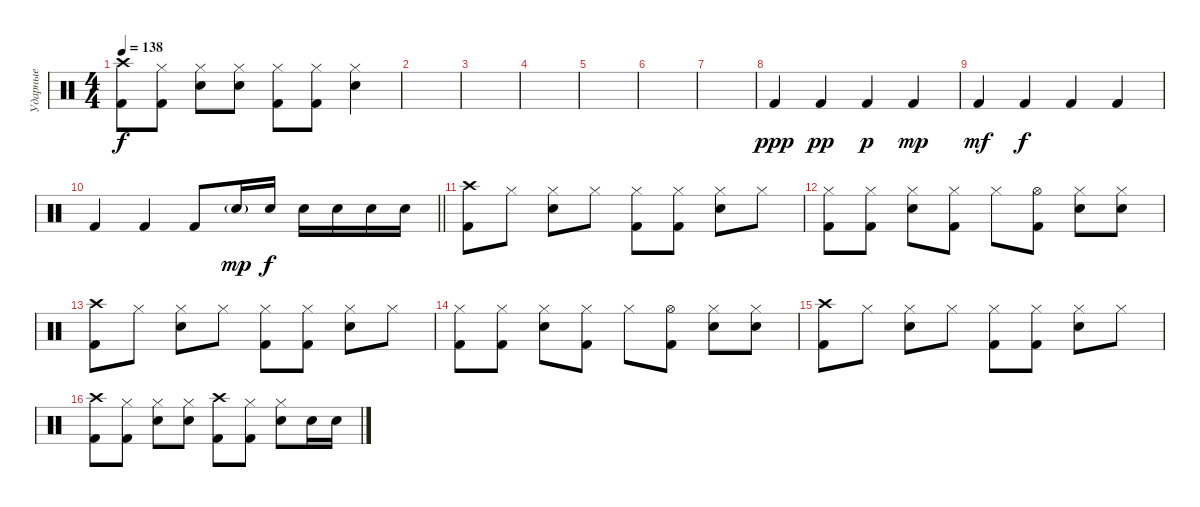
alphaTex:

\track ("Ударные" "Ударные") {instrument percussion}
\staff {score}
\articulation defaults
\ts (4 4)
\tempo 138
\clef neutral
\ks c
("Crash high (hit)" "Kick (hit) 2").8{dy f} ("Hi-Hat (closed)" "Kick (hit) 2").8 ("Hi-Hat (closed)" "Snare (hit) 2").8 ("Hi-Hat (closed)" "Snare (hit) 2").8 ("Hi-Hat (closed)" "Kick (hit) 2").8 ("Hi-Hat (closed)" "Kick (hit) 2").8 ("Hi-Hat (closed)" "Snare (hit) 2").4 |
|
|
|
|
|
|
"Kick (hit) 2".4{dy ppp} "Kick (hit) 2".4{dy pp} "Kick (hit) 2".4{dy p} "Kick (hit) 2".4{dy mp} |
"Kick (hit) 2".4{dy mf} "Kick (hit) 2".4{dy f} "Kick (hit) 2".4 "Kick (hit) 2".4 |
\barLineRight lightlight "Kick (hit) 2".4 "Kick (hit) 2".4 "Kick (hit) 2".8 "Snare (hit) 2"{g}.16{dy mp} "Snare (hit) 2".16{dy f} "Snare (hit) 2".16 "Snare (hit) 2".16 "Snare (hit) 2".16 "Snare (hit) 2".16
|
("Crash high (hit)" "Kick (hit) 2").8 "Hi-Hat (closed)".8 ("Hi-Hat (closed)" "Snare (hit) 2").8 "Hi-Hat (closed)".8 ("Hi-Hat (closed)" "Kick (hit) 2").8 ("Hi-Hat (closed)" "Kick (hit) 2").8 ("Hi-Hat (closed)" "Snare (hit) 2").8 "Hi-Hat (closed)".8 |
("Hi-Hat (closed)" "Kick (hit) 2").8 ("Hi-Hat (closed)" "Kick (hit) 2").8 ("Hi-Hat (closed)" "Snare (hit) 2").8 ("Hi-Hat (closed)" "Kick (hit) 2").8 "Hi-Hat (closed)".8 ("Hi-Hat (open)" "Kick (hit) 2").8 ("Hi-Hat (closed)" "Snare (hit) 2").8 ("Hi-Hat (closed)" "Snare (hit) 2").8 |
("Crash high (hit)" "Kick (hit) 2").8 "Hi-Hat (closed)".8 ("Hi-Hat (closed)" "Snare (hit) 2").8 "Hi-Hat (closed)".8 ("Hi-Hat (closed)" "Kick (hit) 2").8 ("Hi-Hat (closed)" "Kick (hit) 2").8 ("Hi-Hat (closed)" "Snare (hit) 2").8 "Hi-Hat (closed)".8 |
("Hi-Hat (closed)" "Kick (hit) 2").8 ("Hi-Hat (closed)" "Kick (hit) 2").8 ("Hi-Hat (closed)" "Snare (hit) 2").8 ("Hi-Hat (closed)" "Kick (hit) 2").8 "Hi-Hat (closed)".8 ("Hi-Hat (open)" "Kick (hit) 2").8 ("Hi-Hat (closed)" "Snare (hit) 2").8 ("Hi-Hat (closed)" "Snare (hit) 2").8 |
("Crash high (hit)" "Kick (hit) 2").8 "Hi-Hat (closed)".8 ("Hi-Hat (closed)" "Snare (hit) 2").8 "Hi-Hat (closed)".8 ("Hi-Hat (closed)" "Kick (hit) 2").8 ("Hi-Hat (closed)" "Kick (hit) 2").8 ("Hi-Hat (closed)" "Snare (hit) 2").8 "Hi-Hat (closed)".8 |
("Crash high (hit)" "Kick (hit) 2").8 ("Hi-Hat (closed)" "Kick (hit) 2").8 ("Hi-Hat (closed)" "Snare (hit) 2").8 ("Hi-Hat (closed)" "Snare (hit) 2").8 ("Crash high (hit)" "Kick (hit) 2").8 ("Hi-Hat (closed)" "Kick (hit) 2").8 ("Hi-Hat (closed)" "Snare (hit) 2").8 "Snare (hit) 2".16 "Snare (hit) 2".16
